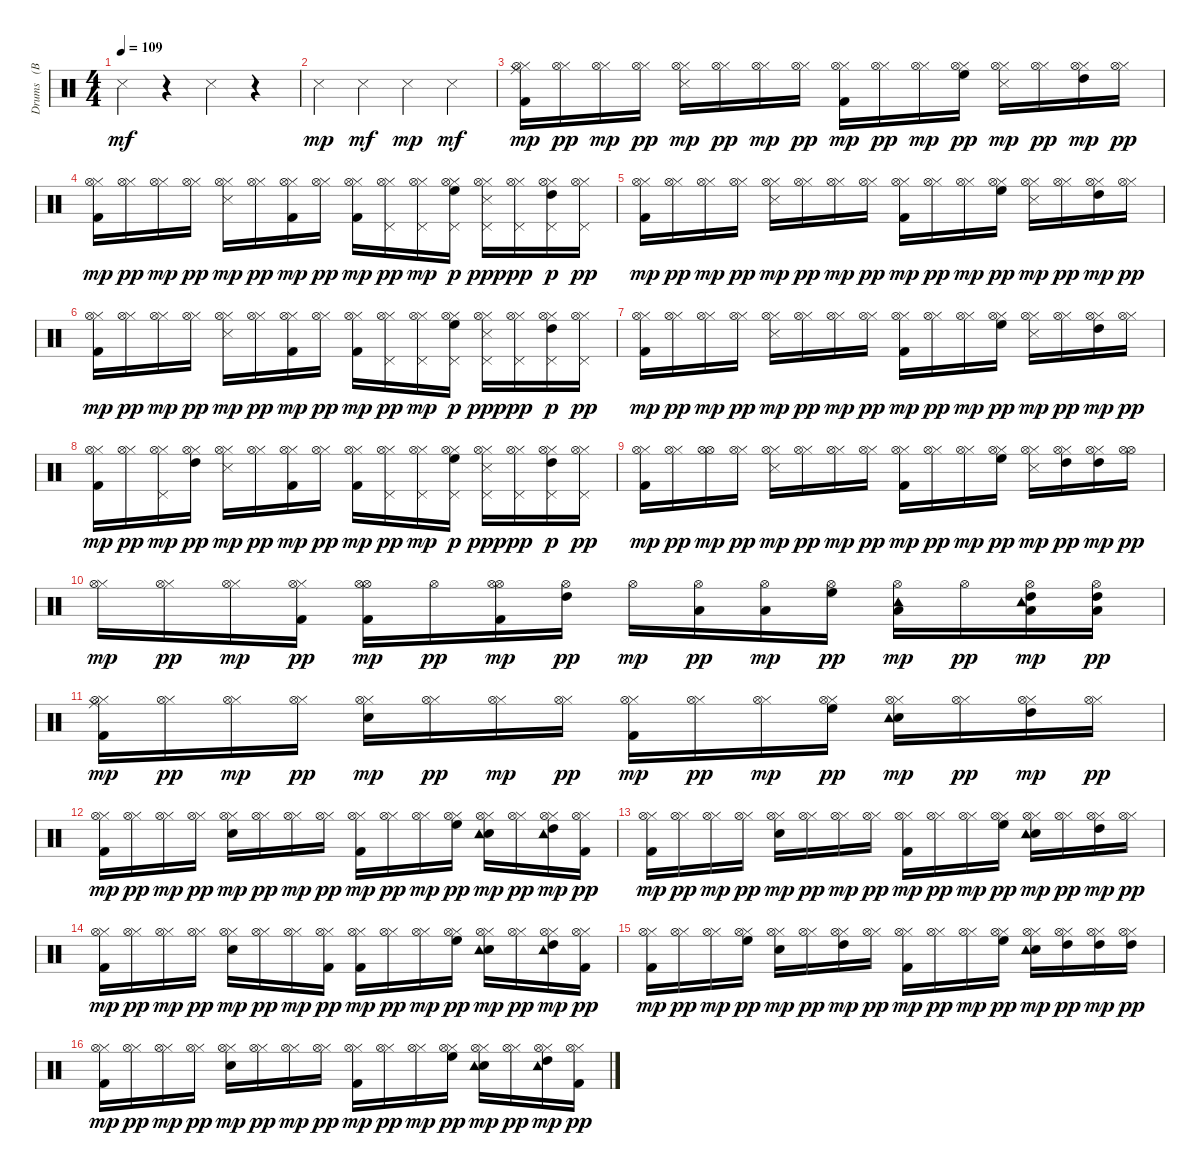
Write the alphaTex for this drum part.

\track ("Drums   (BB)" "Drums   (B") {instrument percussion}
\staff {score}
\articulation defaults
\ts (4 4)
\tempo 109
\clef neutral
\ks c "Snare (side stick) 3".4{dy mf}
r.4 "Snare (side stick) 3".4 r.4 |
"Snare (side stick) 3".4{dy mp} "Snare (side stick) 3".4{dy mf} "Snare (side stick) 3".4{dy mp} "Snare (side stick) 3".4{dy mf} |
("Kick (hit) 2" "Hi-Hat (closed)" "Ride (middle)" "Hi-Hat (open)").16{dy mp} ("Hi-Hat (closed)" "Hi-Hat (open)").16{dy pp} ("Hi-Hat (closed)" "Hi-Hat (open)").16{dy mp} ("Hi-Hat (closed)" "Hi-Hat (open)").16{dy pp} ("Hi-Hat (closed)" "Snare (side stick) 3" "Hi-Hat (open)").16{dy mp} ("Hi-Hat (closed)" "Hi-Hat (open)").16{dy pp} ("Hi-Hat (closed)" "Hi-Hat (open)").16{dy mp} ("Hi-Hat (closed)" "Hi-Hat (open)").16{dy pp} ("Kick (hit) 2" "Hi-Hat (closed)" "Hi-Hat (open)").16{dy mp} ("Hi-Hat (closed)" "Hi-Hat (open)").16{dy pp} ("Hi-Hat (closed)" "Hi-Hat (open)").16{dy mp} ("Hi-Hat (closed)" "High Floor Tom (hit)" "Hi-Hat (open)").16{dy pp} ("Hi-Hat (closed)" "Snare (side stick) 3" "Hi-Hat (open)").16{dy mp} ("Hi-Hat (closed)" "Hi-Hat (open)").16{dy pp} ("Hi-Hat (closed)" "High Tom (hit)" "Hi-Hat (open)").16{dy mp} ("Hi-Hat (closed)" "Hi-Hat (open)").16{dy pp} |
("Kick (hit) 2" "Hi-Hat (closed)" "Hi-Hat (open)").16{dy mp} ("Hi-Hat (closed)" "Hi-Hat (open)").16{dy pp} ("Hi-Hat (closed)" "Hi-Hat (open)").16{dy mp} ("Hi-Hat (closed)" "Hi-Hat (open)").16{dy pp} ("Hi-Hat (closed)" "Snare (side stick) 3" "Hi-Hat (open)").16{dy mp} ("Hi-Hat (closed)" "Hi-Hat (open)").16{dy pp} ("Kick (hit) 2" "Hi-Hat (closed)" "Hi-Hat (open)").16{dy mp} ("Hi-Hat (closed)" "Hi-Hat (open)").16{dy pp} ("Kick (hit) 2" "Hi-Hat (closed)" "Hi-Hat (open)").16{dy mp} ("Hi-Hat (closed)" "Hi-Hat (open)" "Pedal Hi-Hat (hit)").16{dy pp} ("Hi-Hat (closed)" "Hi-Hat (open)" "Pedal Hi-Hat (hit)").16{dy mp} ("Hi-Hat (closed)" "High Floor Tom (hit)" "Hi-Hat (open)" "Pedal Hi-Hat (hit)").16{dy p} ("Hi-Hat (closed)" "Snare (side stick) 3" "Hi-Hat (open)" "Pedal Hi-Hat (hit)").16{dy ppp} ("Hi-Hat (closed)" "Hi-Hat (open)" "Pedal Hi-Hat (hit)").16{dy pp} ("Hi-Hat (closed)" "High Tom (hit)" "Hi-Hat (open)" "Pedal Hi-Hat (hit)").16{dy p} ("Hi-Hat (closed)" "Hi-Hat (open)" "Pedal Hi-Hat (hit)").16{dy pp} |
("Kick (hit) 2" "Hi-Hat (closed)" "Hi-Hat (open)").16{dy mp} ("Hi-Hat (closed)" "Hi-Hat (open)").16{dy pp} ("Hi-Hat (closed)" "Hi-Hat (open)").16{dy mp} ("Hi-Hat (closed)" "Hi-Hat (open)").16{dy pp} ("Hi-Hat (closed)" "Snare (side stick) 3" "Hi-Hat (open)").16{dy mp} ("Hi-Hat (closed)" "Hi-Hat (open)").16{dy pp} ("Hi-Hat (closed)" "Hi-Hat (open)").16{dy mp} ("Hi-Hat (closed)" "Hi-Hat (open)").16{dy pp} ("Kick (hit) 2" "Hi-Hat (closed)" "Hi-Hat (open)").16{dy mp} ("Hi-Hat (closed)" "Hi-Hat (open)").16{dy pp} ("Hi-Hat (closed)" "Hi-Hat (open)").16{dy mp} ("Hi-Hat (closed)" "High Floor Tom (hit)" "Hi-Hat (open)").16{dy pp} ("Hi-Hat (closed)" "Snare (side stick) 3" "Hi-Hat (open)").16{dy mp} ("Hi-Hat (closed)" "Hi-Hat (open)").16{dy pp} ("Hi-Hat (closed)" "High Tom (hit)" "Hi-Hat (open)").16{dy mp} ("Hi-Hat (closed)" "Hi-Hat (open)").16{dy pp} |
("Kick (hit) 2" "Hi-Hat (closed)" "Hi-Hat (open)").16{dy mp} ("Hi-Hat (closed)" "Hi-Hat (open)").16{dy pp} ("Hi-Hat (closed)" "Hi-Hat (open)").16{dy mp} ("Hi-Hat (closed)" "Hi-Hat (open)").16{dy pp} ("Hi-Hat (closed)" "Snare (side stick) 3" "Hi-Hat (open)").16{dy mp} ("Hi-Hat (closed)" "Hi-Hat (open)").16{dy pp} ("Kick (hit) 2" "Hi-Hat (closed)" "Hi-Hat (open)").16{dy mp} ("Hi-Hat (closed)" "Hi-Hat (open)").16{dy pp} ("Kick (hit) 2" "Hi-Hat (closed)" "Hi-Hat (open)").16{dy mp} ("Hi-Hat (closed)" "Hi-Hat (open)" "Pedal Hi-Hat (hit)").16{dy pp} ("Hi-Hat (closed)" "Hi-Hat (open)" "Pedal Hi-Hat (hit)").16{dy mp} ("Hi-Hat (closed)" "High Floor Tom (hit)" "Hi-Hat (open)" "Pedal Hi-Hat (hit)").16{dy p} ("Hi-Hat (closed)" "Snare (side stick) 3" "Hi-Hat (open)" "Pedal Hi-Hat (hit)").16{dy ppp} ("Hi-Hat (closed)" "Hi-Hat (open)" "Pedal Hi-Hat (hit)").16{dy pp} ("Hi-Hat (closed)" "High Tom (hit)" "Hi-Hat (open)" "Pedal Hi-Hat (hit)").16{dy p} ("Hi-Hat (closed)" "Hi-Hat (open)" "Pedal Hi-Hat (hit)").16{dy pp} |
("Kick (hit) 2" "Hi-Hat (closed)" "Hi-Hat (open)").16{dy mp} ("Hi-Hat (closed)" "Hi-Hat (open)").16{dy pp} ("Hi-Hat (closed)" "Hi-Hat (open)").16{dy mp} ("Hi-Hat (closed)" "Hi-Hat (open)").16{dy pp} ("Hi-Hat (closed)" "Snare (side stick) 3" "Hi-Hat (open)").16{dy mp} ("Hi-Hat (closed)" "Hi-Hat (open)").16{dy pp} ("Hi-Hat (closed)" "Hi-Hat (open)").16{dy mp} ("Hi-Hat (closed)" "Hi-Hat (open)").16{dy pp} ("Kick (hit) 2" "Hi-Hat (closed)" "Hi-Hat (open)").16{dy mp} ("Hi-Hat (closed)" "Hi-Hat (open)").16{dy pp} ("Hi-Hat (closed)" "Hi-Hat (open)").16{dy mp} ("Hi-Hat (closed)" "High Floor Tom (hit)" "Hi-Hat (open)").16{dy pp} ("Hi-Hat (closed)" "Snare (side stick) 3" "Hi-Hat (open)").16{dy mp} ("Hi-Hat (closed)" "Hi-Hat (open)").16{dy pp} ("Hi-Hat (closed)" "High Tom (hit)" "Hi-Hat (open)").16{dy mp} ("Hi-Hat (closed)" "Hi-Hat (open)").16{dy pp} |
("Kick (hit) 2" "Hi-Hat (closed)" "Hi-Hat (open)").16{dy mp} ("Hi-Hat (closed)" "Hi-Hat (open)").16{dy pp} ("Hi-Hat (closed)" "Hi-Hat (open)" "Pedal Hi-Hat (hit)").16{dy mp} ("Hi-Hat (closed)" "High Tom (hit)" "Hi-Hat (open)").16{dy pp} ("Hi-Hat (closed)" "Snare (side stick) 3" "Hi-Hat (open)").16{dy mp} ("Hi-Hat (closed)" "Hi-Hat (open)").16{dy pp} ("Kick (hit) 2" "Hi-Hat (closed)" "Hi-Hat (open)").16{dy mp} ("Hi-Hat (closed)" "Hi-Hat (open)").16{dy pp} ("Kick (hit) 2" "Hi-Hat (closed)" "Hi-Hat (open)").16{dy mp} ("Hi-Hat (closed)" "Hi-Hat (open)" "Pedal Hi-Hat (hit)").16{dy pp} ("Hi-Hat (closed)" "Hi-Hat (open)" "Pedal Hi-Hat (hit)").16{dy mp} ("Hi-Hat (closed)" "High Floor Tom (hit)" "Hi-Hat (open)" "Pedal Hi-Hat (hit)").16{dy p} ("Hi-Hat (closed)" "Snare (side stick) 3" "Hi-Hat (open)" "Pedal Hi-Hat (hit)").16{dy ppp} ("Hi-Hat (closed)" "Hi-Hat (open)" "Pedal Hi-Hat (hit)").16{dy pp} ("Hi-Hat (closed)" "High Tom (hit)" "Hi-Hat (open)" "Pedal Hi-Hat (hit)").16{dy p} ("Hi-Hat (closed)" "Hi-Hat (open)" "Pedal Hi-Hat (hit)").16{dy pp} |
("Kick (hit) 2" "Hi-Hat (closed)" "Hi-Hat (open)").16{dy mp} ("Hi-Hat (closed)" "Hi-Hat (open)").16{dy pp} ("Hi-Hat (open)" "Hi-Hat (open)").16{dy mp} ("Hi-Hat (closed)" "Hi-Hat (open)").16{dy pp} ("Hi-Hat (closed)" "Snare (side stick) 3" "Hi-Hat (open)").16{dy mp} ("Hi-Hat (closed)" "Hi-Hat (open)").16{dy pp} ("Hi-Hat (closed)" "Hi-Hat (open)").16{dy mp} ("Hi-Hat (closed)" "Hi-Hat (open)").16{dy pp} ("Kick (hit) 2" "Hi-Hat (closed)" "Hi-Hat (open)").16{dy mp} ("Hi-Hat (closed)" "Hi-Hat (open)").16{dy pp} ("Hi-Hat (closed)" "Hi-Hat (open)").16{dy mp} ("Hi-Hat (closed)" "High Floor Tom (hit)" "Hi-Hat (open)").16{dy pp} ("Hi-Hat (closed)" "Snare (side stick) 3" "Hi-Hat (open)").16{dy mp} ("Hi-Hat (closed)" "High Tom (hit)" "Hi-Hat (open)").16{dy pp} ("Hi-Hat (closed)" "High Tom (hit)" "Hi-Hat (open)").16{dy mp} ("Hi-Hat (open)" "Hi-Hat (open)").16{dy pp} |
("Hi-Hat (closed)" "Hi-Hat (open)").16{dy mp} ("Hi-Hat (closed)" "Hi-Hat (open)").16{dy pp} ("Hi-Hat (closed)" "Hi-Hat (open)").16{dy mp} ("Kick (hit) 2" "Hi-Hat (closed)" "Hi-Hat (open)").16{dy pp} ("Kick (hit) 2" "Hi-Hat (open)" "Hi-Hat (open)").16{dy mp} "Hi-Hat (open)".16{dy pp} ("Kick (hit) 2" "Hi-Hat (open)" "Hi-Hat (open)").16{dy mp} ("High Tom (hit)" "Hi-Hat (open)").16{dy pp} "Hi-Hat (open)".16{dy mp} ("Low Tom (hit)" "Hi-Hat (open)").16{dy pp} ("Low Tom (hit)" "Hi-Hat (open)").16{dy mp} ("High Floor Tom (hit)" "Hi-Hat (open)").16{dy pp} ("Low Tom (hit)" "Tambourine (hit)" "Hi-Hat (open)").16{dy mp} "Hi-Hat (open)".16{dy pp} ("Low Floor Tom (hit)" "High Tom (hit)" "Tambourine (hit)" "Hi-Hat (open)").16{dy mp} ("Low Floor Tom (hit)" "High Tom (hit)" "Hi-Hat (open)").16{dy pp} |
("Kick (hit) 2" "Hi-Hat (closed)" "Ride (middle)" "Hi-Hat (open)").16{dy mp} ("Hi-Hat (closed)" "Hi-Hat (open)").16{dy pp} ("Hi-Hat (closed)" "Hi-Hat (open)").16{dy mp} ("Hi-Hat (closed)" "Hi-Hat (open)").16{dy pp} ("Snare (hit) 2" "Hi-Hat (closed)" "Hi-Hat (open)").16{dy mp} ("Hi-Hat (closed)" "Hi-Hat (open)").16{dy pp} ("Hi-Hat (closed)" "Hi-Hat (open)").16{dy mp} ("Hi-Hat (closed)" "Hi-Hat (open)").16{dy pp} ("Kick (hit) 2" "Hi-Hat (closed)" "Hi-Hat (open)").16{dy mp} ("Hi-Hat (closed)" "Hi-Hat (open)").16{dy pp} ("Hi-Hat (closed)" "Hi-Hat (open)").16{dy mp} ("Hi-Hat (closed)" "High Floor Tom (hit)" "Hi-Hat (open)").16{dy pp} ("Snare (hit) 2" "Hi-Hat (closed)" "Tambourine (hit)" "Hi-Hat (open)").16{dy mp} ("Hi-Hat (closed)" "Hi-Hat (open)").16{dy pp} ("Hi-Hat (closed)" "High Tom (hit)" "Hi-Hat (open)").16{dy mp} ("Hi-Hat (closed)" "Hi-Hat (open)").16{dy pp} |
("Kick (hit) 2" "Hi-Hat (closed)" "Hi-Hat (open)").16{dy mp} ("Hi-Hat (closed)" "Hi-Hat (open)").16{dy pp} ("Hi-Hat (closed)" "Hi-Hat (open)").16{dy mp} ("Hi-Hat (closed)" "Hi-Hat (open)").16{dy pp} ("Snare (hit) 2" "Hi-Hat (closed)" "Hi-Hat (open)").16{dy mp} ("Hi-Hat (closed)" "Hi-Hat (open)").16{dy pp} ("Hi-Hat (closed)" "Hi-Hat (open)").16{dy mp} ("Hi-Hat (closed)" "Hi-Hat (open)").16{dy pp} ("Kick (hit) 2" "Hi-Hat (closed)" "Hi-Hat (open)").16{dy mp} ("Hi-Hat (closed)" "Hi-Hat (open)").16{dy pp} ("Hi-Hat (closed)" "Hi-Hat (open)").16{dy mp} ("Hi-Hat (closed)" "High Floor Tom (hit)" "Hi-Hat (open)").16{dy pp} ("Snare (hit) 2" "Hi-Hat (closed)" "Tambourine (hit)" "Hi-Hat (open)").16{dy mp} ("Hi-Hat (closed)" "Hi-Hat (open)").16{dy pp} ("Hi-Hat (closed)" "High Tom (hit)" "Tambourine (hit)" "Hi-Hat (open)").16{dy mp} ("Kick (hit) 2" "Hi-Hat (closed)" "Hi-Hat (open)").16{dy pp} |
("Kick (hit) 2" "Hi-Hat (closed)" "Hi-Hat (open)").16{dy mp} ("Hi-Hat (closed)" "Hi-Hat (open)").16{dy pp} ("Hi-Hat (closed)" "Hi-Hat (open)").16{dy mp} ("Hi-Hat (closed)" "Hi-Hat (open)").16{dy pp} ("Snare (hit) 2" "Hi-Hat (closed)" "Hi-Hat (open)").16{dy mp} ("Hi-Hat (closed)" "Hi-Hat (open)").16{dy pp} ("Hi-Hat (closed)" "Hi-Hat (open)").16{dy mp} ("Hi-Hat (closed)" "Hi-Hat (open)").16{dy pp} ("Kick (hit) 2" "Hi-Hat (closed)" "Hi-Hat (open)").16{dy mp} ("Hi-Hat (closed)" "Hi-Hat (open)").16{dy pp} ("Hi-Hat (closed)" "Hi-Hat (open)").16{dy mp} ("Hi-Hat (closed)" "High Floor Tom (hit)" "Hi-Hat (open)").16{dy pp} ("Snare (hit) 2" "Hi-Hat (closed)" "Tambourine (hit)" "Hi-Hat (open)").16{dy mp} ("Hi-Hat (closed)" "Hi-Hat (open)").16{dy pp} ("Hi-Hat (closed)" "High Tom (hit)" "Hi-Hat (open)").16{dy mp} ("Hi-Hat (closed)" "Hi-Hat (open)").16{dy pp} |
("Kick (hit) 2" "Hi-Hat (closed)" "Hi-Hat (open)").16{dy mp} ("Hi-Hat (closed)" "Hi-Hat (open)").16{dy pp} ("Hi-Hat (closed)" "Hi-Hat (open)").16{dy mp} ("Hi-Hat (closed)" "Hi-Hat (open)").16{dy pp} ("Snare (hit) 2" "Hi-Hat (closed)" "Hi-Hat (open)").16{dy mp} ("Hi-Hat (closed)" "Hi-Hat (open)").16{dy pp} ("Hi-Hat (closed)" "Hi-Hat (open)").16{dy mp} ("Kick (hit) 2" "Hi-Hat (closed)" "Hi-Hat (open)").16{dy pp} ("Kick (hit) 2" "Hi-Hat (closed)" "Hi-Hat (open)").16{dy mp} ("Hi-Hat (closed)" "Hi-Hat (open)").16{dy pp} ("Hi-Hat (closed)" "Hi-Hat (open)").16{dy mp} ("Hi-Hat (closed)" "High Floor Tom (hit)" "Hi-Hat (open)").16{dy pp} ("Snare (hit) 2" "Hi-Hat (closed)" "Tambourine (hit)" "Hi-Hat (open)").16{dy mp} ("Hi-Hat (closed)" "Hi-Hat (open)").16{dy pp} ("Hi-Hat (closed)" "High Tom (hit)" "Tambourine (hit)" "Hi-Hat (open)").16{dy mp} ("Kick (hit) 2" "Hi-Hat (closed)" "Hi-Hat (open)").16{dy pp} |
("Kick (hit) 2" "Hi-Hat (closed)" "Hi-Hat (open)").16{dy mp} ("Hi-Hat (closed)" "Hi-Hat (open)").16{dy pp} ("Hi-Hat (closed)" "Hi-Hat (open)").16{dy mp} ("Hi-Hat (closed)" "High Floor Tom (hit)" "Hi-Hat (open)").16{dy pp} ("Snare (hit) 2" "Hi-Hat (closed)" "Hi-Hat (open)").16{dy mp} ("Hi-Hat (closed)" "Hi-Hat (open)").16{dy pp} ("Hi-Hat (closed)" "High Tom (hit)" "Hi-Hat (open)").16{dy mp} ("Hi-Hat (closed)" "Hi-Hat (open)").16{dy pp} ("Kick (hit) 2" "Hi-Hat (closed)" "Hi-Hat (open)").16{dy mp} ("Hi-Hat (closed)" "Hi-Hat (open)").16{dy pp} ("Hi-Hat (closed)" "Hi-Hat (open)").16{dy mp} ("Hi-Hat (closed)" "High Floor Tom (hit)" "Hi-Hat (open)").16{dy pp} ("Snare (hit) 2" "Hi-Hat (closed)" "Tambourine (hit)" "Hi-Hat (open)").16{dy mp} ("Hi-Hat (closed)" "High Tom (hit)" "Hi-Hat (open)").16{dy pp} ("Hi-Hat (closed)" "High Tom (hit)" "Hi-Hat (open)").16{dy mp} ("Hi-Hat (closed)" "High Tom (hit)" "Hi-Hat (open)").16{dy pp} |
("Kick (hit) 2" "Hi-Hat (closed)" "Hi-Hat (open)").16{dy mp} ("Hi-Hat (closed)" "Hi-Hat (open)").16{dy pp} ("Hi-Hat (closed)" "Hi-Hat (open)").16{dy mp} ("Hi-Hat (closed)" "Hi-Hat (open)").16{dy pp} ("Snare (hit) 2" "Hi-Hat (closed)" "Hi-Hat (open)").16{dy mp} ("Hi-Hat (closed)" "Hi-Hat (open)").16{dy pp} ("Hi-Hat (closed)" "Hi-Hat (open)").16{dy mp} ("Hi-Hat (closed)" "Hi-Hat (open)").16{dy pp} ("Kick (hit) 2" "Hi-Hat (closed)" "Hi-Hat (open)").16{dy mp} ("Hi-Hat (closed)" "Hi-Hat (open)").16{dy pp} ("Hi-Hat (closed)" "Hi-Hat (open)").16{dy mp} ("Hi-Hat (closed)" "High Floor Tom (hit)" "Hi-Hat (open)").16{dy pp} ("Snare (hit) 2" "Hi-Hat (closed)" "Tambourine (hit)" "Hi-Hat (open)").16{dy mp} ("Hi-Hat (closed)" "Hi-Hat (open)").16{dy pp} ("Hi-Hat (closed)" "High Tom (hit)" "Tambourine (hit)" "Hi-Hat (open)").16{dy mp} ("Kick (hit) 2" "Hi-Hat (closed)" "Hi-Hat (open)").16{dy pp}
